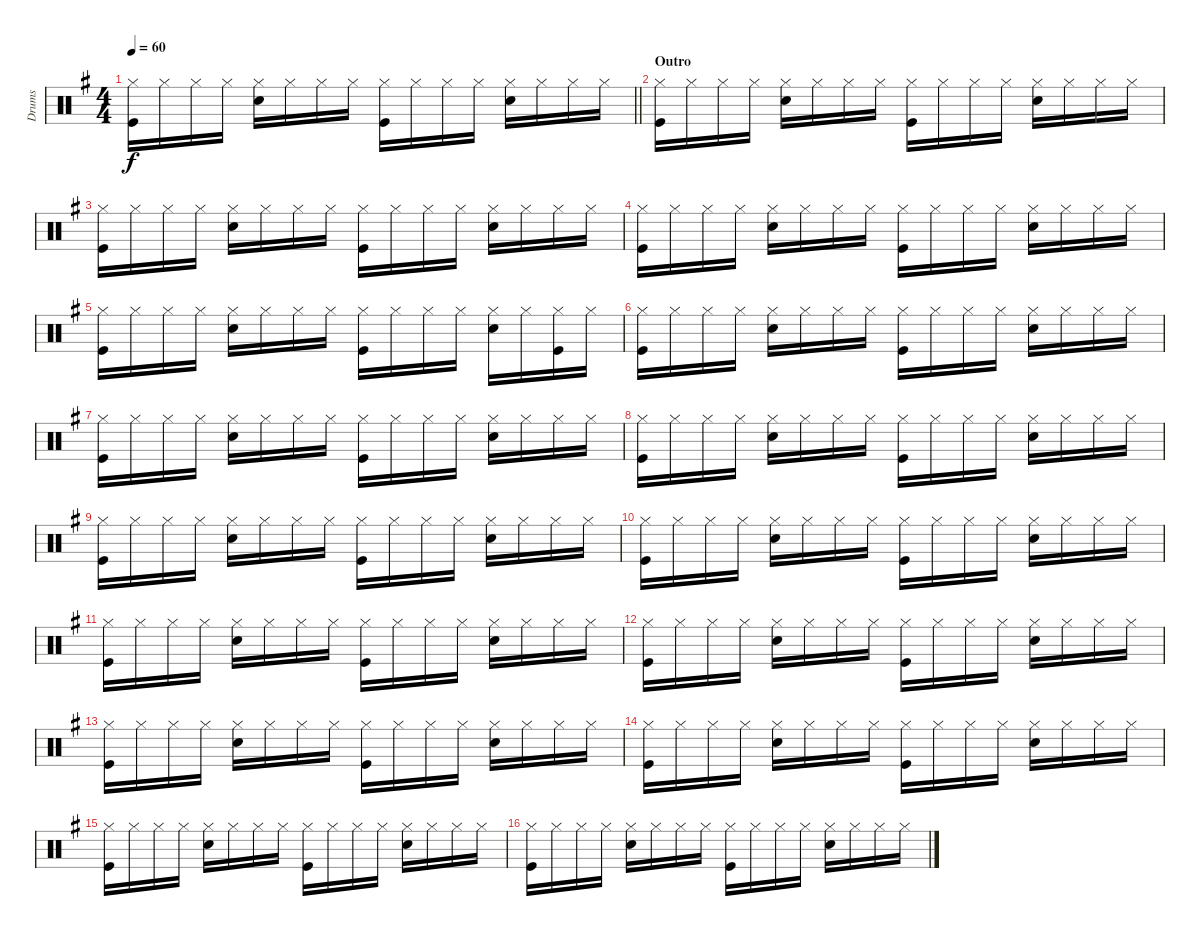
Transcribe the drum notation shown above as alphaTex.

\track ("Drums" "Drums") {instrument percussion}
\staff {score}
\articulation defaults
\ts (4 4)
\tempo 60
\clef neutral
\barLineRight lightlight
\ks g
("Kick (hit)" "Hi-Hat (closed)").16{dy f} "Hi-Hat (closed)".16 "Hi-Hat (closed)".16 "Hi-Hat (closed)".16 ("Electric Snare (hit)" "Hi-Hat (closed)").16 "Hi-Hat (closed)".16 "Hi-Hat (closed)".16 "Hi-Hat (closed)".16 ("Kick (hit)" "Hi-Hat (closed)").16 "Hi-Hat (closed)".16 "Hi-Hat (closed)".16 "Hi-Hat (closed)".16 ("Electric Snare (hit)" "Hi-Hat (closed)").16 "Hi-Hat (closed)".16 "Hi-Hat (closed)".16 "Hi-Hat (closed)".16 |
\section ("" "Outro")
("Kick (hit)" "Hi-Hat (closed)").16 "Hi-Hat (closed)".16 "Hi-Hat (closed)".16 "Hi-Hat (closed)".16 ("Electric Snare (hit)" "Hi-Hat (closed)").16 "Hi-Hat (closed)".16 "Hi-Hat (closed)".16 "Hi-Hat (closed)".16 ("Kick (hit)" "Hi-Hat (closed)").16 "Hi-Hat (closed)".16 "Hi-Hat (closed)".16 "Hi-Hat (closed)".16 ("Electric Snare (hit)" "Hi-Hat (closed)").16 "Hi-Hat (closed)".16 "Hi-Hat (closed)".16 "Hi-Hat (closed)".16 |
("Kick (hit)" "Hi-Hat (closed)").16 "Hi-Hat (closed)".16 "Hi-Hat (closed)".16 "Hi-Hat (closed)".16 ("Electric Snare (hit)" "Hi-Hat (closed)").16 "Hi-Hat (closed)".16 "Hi-Hat (closed)".16 "Hi-Hat (closed)".16 ("Kick (hit)" "Hi-Hat (closed)").16 "Hi-Hat (closed)".16 "Hi-Hat (closed)".16 "Hi-Hat (closed)".16 ("Electric Snare (hit)" "Hi-Hat (closed)").16 "Hi-Hat (closed)".16 "Hi-Hat (closed)".16 "Hi-Hat (closed)".16 |
("Kick (hit)" "Hi-Hat (closed)").16 "Hi-Hat (closed)".16 "Hi-Hat (closed)".16 "Hi-Hat (closed)".16 ("Electric Snare (hit)" "Hi-Hat (closed)").16 "Hi-Hat (closed)".16 "Hi-Hat (closed)".16 "Hi-Hat (closed)".16 ("Kick (hit)" "Hi-Hat (closed)").16 "Hi-Hat (closed)".16 "Hi-Hat (closed)".16 "Hi-Hat (closed)".16 ("Electric Snare (hit)" "Hi-Hat (closed)").16 "Hi-Hat (closed)".16 "Hi-Hat (closed)".16 "Hi-Hat (closed)".16 |
("Kick (hit)" "Hi-Hat (closed)").16 "Hi-Hat (closed)".16 "Hi-Hat (closed)".16 "Hi-Hat (closed)".16 ("Electric Snare (hit)" "Hi-Hat (closed)").16 "Hi-Hat (closed)".16 "Hi-Hat (closed)".16 "Hi-Hat (closed)".16 ("Kick (hit)" "Hi-Hat (closed)").16 "Hi-Hat (closed)".16 "Hi-Hat (closed)".16 "Hi-Hat (closed)".16 ("Electric Snare (hit)" "Hi-Hat (closed)").16 "Hi-Hat (closed)".16 ("Kick (hit)" "Hi-Hat (closed)").16 "Hi-Hat (closed)".16 |
("Kick (hit)" "Hi-Hat (closed)").16 "Hi-Hat (closed)".16 "Hi-Hat (closed)".16 "Hi-Hat (closed)".16 ("Electric Snare (hit)" "Hi-Hat (closed)").16 "Hi-Hat (closed)".16 "Hi-Hat (closed)".16 "Hi-Hat (closed)".16 ("Kick (hit)" "Hi-Hat (closed)").16 "Hi-Hat (closed)".16 "Hi-Hat (closed)".16 "Hi-Hat (closed)".16 ("Electric Snare (hit)" "Hi-Hat (closed)").16 "Hi-Hat (closed)".16 "Hi-Hat (closed)".16 "Hi-Hat (closed)".16 |
("Kick (hit)" "Hi-Hat (closed)").16 "Hi-Hat (closed)".16 "Hi-Hat (closed)".16 "Hi-Hat (closed)".16 ("Electric Snare (hit)" "Hi-Hat (closed)").16 "Hi-Hat (closed)".16 "Hi-Hat (closed)".16 "Hi-Hat (closed)".16 ("Kick (hit)" "Hi-Hat (closed)").16 "Hi-Hat (closed)".16 "Hi-Hat (closed)".16 "Hi-Hat (closed)".16 ("Electric Snare (hit)" "Hi-Hat (closed)").16 "Hi-Hat (closed)".16 "Hi-Hat (closed)".16 "Hi-Hat (closed)".16 |
("Kick (hit)" "Hi-Hat (closed)").16 "Hi-Hat (closed)".16 "Hi-Hat (closed)".16 "Hi-Hat (closed)".16 ("Electric Snare (hit)" "Hi-Hat (closed)").16 "Hi-Hat (closed)".16 "Hi-Hat (closed)".16 "Hi-Hat (closed)".16 ("Kick (hit)" "Hi-Hat (closed)").16 "Hi-Hat (closed)".16 "Hi-Hat (closed)".16 "Hi-Hat (closed)".16 ("Electric Snare (hit)" "Hi-Hat (closed)").16 "Hi-Hat (closed)".16 "Hi-Hat (closed)".16 "Hi-Hat (closed)".16 |
("Kick (hit)" "Hi-Hat (closed)").16 "Hi-Hat (closed)".16 "Hi-Hat (closed)".16 "Hi-Hat (closed)".16 ("Electric Snare (hit)" "Hi-Hat (closed)").16 "Hi-Hat (closed)".16 "Hi-Hat (closed)".16 "Hi-Hat (closed)".16 ("Kick (hit)" "Hi-Hat (closed)").16 "Hi-Hat (closed)".16 "Hi-Hat (closed)".16 "Hi-Hat (closed)".16 ("Electric Snare (hit)" "Hi-Hat (closed)").16 "Hi-Hat (closed)".16 "Hi-Hat (closed)".16 "Hi-Hat (closed)".16 |
("Kick (hit)" "Hi-Hat (closed)").16 "Hi-Hat (closed)".16 "Hi-Hat (closed)".16 "Hi-Hat (closed)".16 ("Electric Snare (hit)" "Hi-Hat (closed)").16 "Hi-Hat (closed)".16 "Hi-Hat (closed)".16 "Hi-Hat (closed)".16 ("Kick (hit)" "Hi-Hat (closed)").16 "Hi-Hat (closed)".16 "Hi-Hat (closed)".16 "Hi-Hat (closed)".16 ("Electric Snare (hit)" "Hi-Hat (closed)").16 "Hi-Hat (closed)".16 "Hi-Hat (closed)".16 "Hi-Hat (closed)".16 |
("Kick (hit)" "Hi-Hat (closed)").16 "Hi-Hat (closed)".16 "Hi-Hat (closed)".16 "Hi-Hat (closed)".16 ("Electric Snare (hit)" "Hi-Hat (closed)").16 "Hi-Hat (closed)".16 "Hi-Hat (closed)".16 "Hi-Hat (closed)".16 ("Kick (hit)" "Hi-Hat (closed)").16 "Hi-Hat (closed)".16 "Hi-Hat (closed)".16 "Hi-Hat (closed)".16 ("Electric Snare (hit)" "Hi-Hat (closed)").16 "Hi-Hat (closed)".16 "Hi-Hat (closed)".16 "Hi-Hat (closed)".16 |
("Kick (hit)" "Hi-Hat (closed)").16 "Hi-Hat (closed)".16 "Hi-Hat (closed)".16 "Hi-Hat (closed)".16 ("Electric Snare (hit)" "Hi-Hat (closed)").16 "Hi-Hat (closed)".16 "Hi-Hat (closed)".16 "Hi-Hat (closed)".16 ("Kick (hit)" "Hi-Hat (closed)").16 "Hi-Hat (closed)".16 "Hi-Hat (closed)".16 "Hi-Hat (closed)".16 ("Electric Snare (hit)" "Hi-Hat (closed)").16 "Hi-Hat (closed)".16 "Hi-Hat (closed)".16 "Hi-Hat (closed)".16 |
("Kick (hit)" "Hi-Hat (closed)").16 "Hi-Hat (closed)".16 "Hi-Hat (closed)".16 "Hi-Hat (closed)".16 ("Electric Snare (hit)" "Hi-Hat (closed)").16 "Hi-Hat (closed)".16 "Hi-Hat (closed)".16 "Hi-Hat (closed)".16 ("Kick (hit)" "Hi-Hat (closed)").16 "Hi-Hat (closed)".16 "Hi-Hat (closed)".16 "Hi-Hat (closed)".16 ("Electric Snare (hit)" "Hi-Hat (closed)").16 "Hi-Hat (closed)".16 "Hi-Hat (closed)".16 "Hi-Hat (closed)".16 |
("Kick (hit)" "Hi-Hat (closed)").16 "Hi-Hat (closed)".16 "Hi-Hat (closed)".16 "Hi-Hat (closed)".16 ("Electric Snare (hit)" "Hi-Hat (closed)").16 "Hi-Hat (closed)".16 "Hi-Hat (closed)".16 "Hi-Hat (closed)".16 ("Kick (hit)" "Hi-Hat (closed)").16 "Hi-Hat (closed)".16 "Hi-Hat (closed)".16 "Hi-Hat (closed)".16 ("Electric Snare (hit)" "Hi-Hat (closed)").16 "Hi-Hat (closed)".16 "Hi-Hat (closed)".16 "Hi-Hat (closed)".16 |
("Kick (hit)" "Hi-Hat (closed)").16 "Hi-Hat (closed)".16 "Hi-Hat (closed)".16 "Hi-Hat (closed)".16 ("Electric Snare (hit)" "Hi-Hat (closed)").16 "Hi-Hat (closed)".16 "Hi-Hat (closed)".16 "Hi-Hat (closed)".16 ("Kick (hit)" "Hi-Hat (closed)").16 "Hi-Hat (closed)".16 "Hi-Hat (closed)".16 "Hi-Hat (closed)".16 ("Electric Snare (hit)" "Hi-Hat (closed)").16 "Hi-Hat (closed)".16 "Hi-Hat (closed)".16 "Hi-Hat (closed)".16 |
("Kick (hit)" "Hi-Hat (closed)").16 "Hi-Hat (closed)".16 "Hi-Hat (closed)".16 "Hi-Hat (closed)".16 ("Electric Snare (hit)" "Hi-Hat (closed)").16 "Hi-Hat (closed)".16 "Hi-Hat (closed)".16 "Hi-Hat (closed)".16 ("Kick (hit)" "Hi-Hat (closed)").16 "Hi-Hat (closed)".16 "Hi-Hat (closed)".16 "Hi-Hat (closed)".16 ("Electric Snare (hit)" "Hi-Hat (closed)").16 "Hi-Hat (closed)".16 "Hi-Hat (closed)".16 "Hi-Hat (closed)".16
